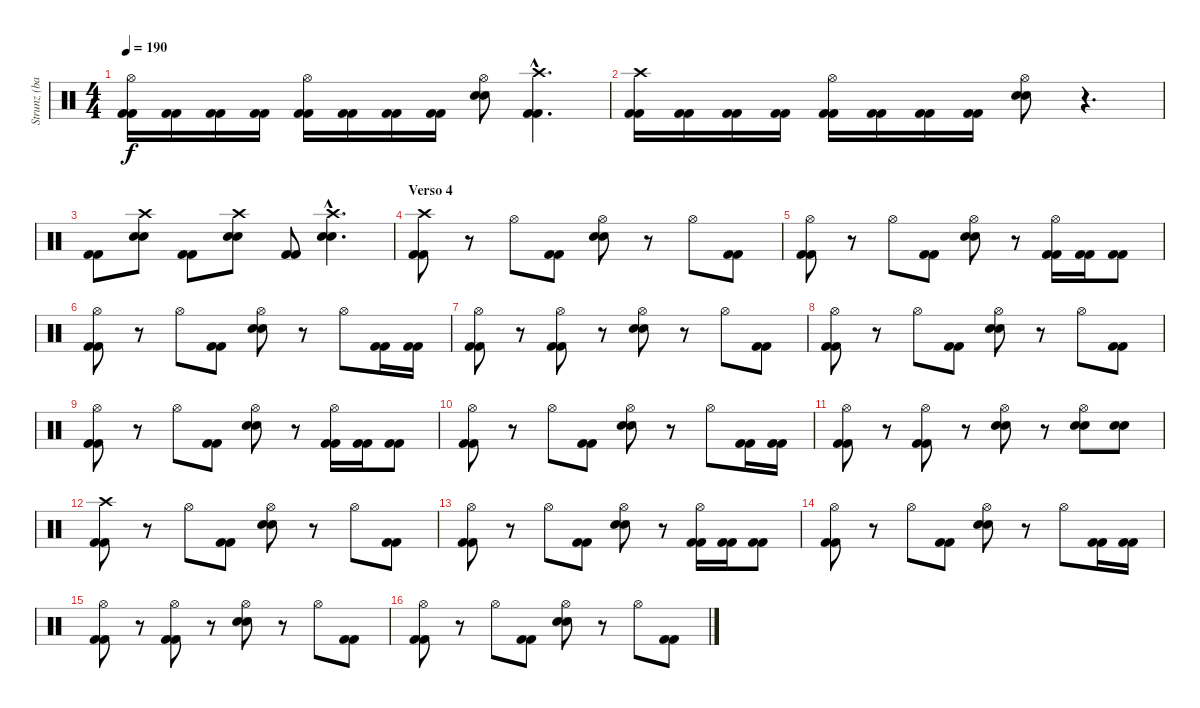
\track ("Strunz (bateria)" "Strunz (ba") {instrument percussion}
\staff {score}
\articulation defaults
\ts (4 4)
\tempo 190
\clef neutral
\ks c
("Hi-Hat (open)" "Kick (hit) 2" "Kick (hit) 2").16{dy f} ("Kick (hit) 2" "Kick (hit) 2").16 ("Kick (hit) 2" "Kick (hit) 2").16 ("Kick (hit) 2" "Kick (hit) 2").16 ("Hi-Hat (open)" "Kick (hit) 2" "Kick (hit) 2").16 ("Kick (hit) 2" "Kick (hit) 2").16 ("Kick (hit) 2" "Kick (hit) 2").16 ("Kick (hit) 2" "Kick (hit) 2").16 ("Hi-Hat (open)" "Snare (hit) 2" "Snare (hit) 2").8 ("Crash high (hit)"{hac} "Kick (hit) 2"{hac} "Kick (hit) 2"{hac}).4{d} |
("Crash high (hit)" "Kick (hit) 2" "Kick (hit) 2").16 ("Kick (hit) 2" "Kick (hit) 2").16 ("Kick (hit) 2" "Kick (hit) 2").16 ("Kick (hit) 2" "Kick (hit) 2").16 ("Hi-Hat (open)" "Kick (hit) 2" "Kick (hit) 2").16 ("Kick (hit) 2" "Kick (hit) 2").16 ("Kick (hit) 2" "Kick (hit) 2").16 ("Kick (hit) 2" "Kick (hit) 2").16 ("Hi-Hat (open)" "Snare (hit) 2" "Snare (hit) 2").8 r.4{d} |
("Kick (hit) 2" "Kick (hit) 2").8 ("Crash high (hit)" "Snare (hit) 2" "Snare (hit) 2").8 ("Kick (hit) 2" "Kick (hit) 2").8 ("Crash high (hit)" "Snare (hit) 2" "Snare (hit) 2").8 ("Kick (hit) 2" "Kick (hit) 2").8 ("Crash high (hit)"{hac} "Snare (hit) 2"{hac} "Snare (hit) 2"{hac}).4{d} |
\section ("" "Verso 4")
("Crash high (hit)" "Kick (hit) 2" "Kick (hit) 2").8 r.8 "Hi-Hat (open)".8 ("Kick (hit) 2" "Kick (hit) 2").8 ("Hi-Hat (open)" "Snare (hit) 2" "Snare (hit) 2").8 r.8 "Hi-Hat (open)".8 ("Kick (hit) 2" "Kick (hit) 2").8 |
("Hi-Hat (open)" "Kick (hit) 2" "Kick (hit) 2").8 r.8 "Hi-Hat (open)".8 ("Kick (hit) 2" "Kick (hit) 2").8 ("Hi-Hat (open)" "Snare (hit) 2" "Snare (hit) 2").8 r.8 ("Hi-Hat (open)" "Kick (hit) 2" "Kick (hit) 2").16 ("Kick (hit) 2" "Kick (hit) 2").16 ("Kick (hit) 2" "Kick (hit) 2").8 |
("Hi-Hat (open)" "Kick (hit) 2" "Kick (hit) 2").8 r.8 "Hi-Hat (open)".8 ("Kick (hit) 2" "Kick (hit) 2").8 ("Hi-Hat (open)" "Snare (hit) 2" "Snare (hit) 2").8 r.8 "Hi-Hat (open)".8 ("Kick (hit) 2" "Kick (hit) 2").16 ("Kick (hit) 2" "Kick (hit) 2").16 |
("Hi-Hat (open)" "Kick (hit) 2" "Kick (hit) 2").8 r.8 ("Hi-Hat (open)" "Kick (hit) 2" "Kick (hit) 2").8 r.8 ("Hi-Hat (open)" "Snare (hit) 2" "Snare (hit) 2").8 r.8 "Hi-Hat (open)".8 ("Kick (hit) 2" "Kick (hit) 2").8 |
("Hi-Hat (open)" "Kick (hit) 2" "Kick (hit) 2").8 r.8 "Hi-Hat (open)".8 ("Kick (hit) 2" "Kick (hit) 2").8 ("Hi-Hat (open)" "Snare (hit) 2" "Snare (hit) 2").8 r.8 "Hi-Hat (open)".8 ("Kick (hit) 2" "Kick (hit) 2").8 |
("Hi-Hat (open)" "Kick (hit) 2" "Kick (hit) 2").8 r.8 "Hi-Hat (open)".8 ("Kick (hit) 2" "Kick (hit) 2").8 ("Hi-Hat (open)" "Snare (hit) 2" "Snare (hit) 2").8 r.8 ("Hi-Hat (open)" "Kick (hit) 2" "Kick (hit) 2").16 ("Kick (hit) 2" "Kick (hit) 2").16 ("Kick (hit) 2" "Kick (hit) 2").8 |
("Hi-Hat (open)" "Kick (hit) 2" "Kick (hit) 2").8 r.8 "Hi-Hat (open)".8 ("Kick (hit) 2" "Kick (hit) 2").8 ("Hi-Hat (open)" "Snare (hit) 2" "Snare (hit) 2").8 r.8 "Hi-Hat (open)".8 ("Kick (hit) 2" "Kick (hit) 2").16 ("Kick (hit) 2" "Kick (hit) 2").16 |
("Hi-Hat (open)" "Kick (hit) 2" "Kick (hit) 2").8 r.8 ("Hi-Hat (open)" "Kick (hit) 2" "Kick (hit) 2").8 r.8 ("Hi-Hat (open)" "Snare (hit) 2" "Snare (hit) 2").8 r.8 ("Hi-Hat (open)" "Snare (hit) 2" "Snare (hit) 2").8 ("Snare (hit) 2" "Snare (hit) 2").8 |
("Crash high (hit)" "Kick (hit) 2" "Kick (hit) 2").8 r.8 "Hi-Hat (open)".8 ("Kick (hit) 2" "Kick (hit) 2").8 ("Hi-Hat (open)" "Snare (hit) 2" "Snare (hit) 2").8 r.8 "Hi-Hat (open)".8 ("Kick (hit) 2" "Kick (hit) 2").8 |
("Hi-Hat (open)" "Kick (hit) 2" "Kick (hit) 2").8 r.8 "Hi-Hat (open)".8 ("Kick (hit) 2" "Kick (hit) 2").8 ("Hi-Hat (open)" "Snare (hit) 2" "Snare (hit) 2").8 r.8 ("Hi-Hat (open)" "Kick (hit) 2" "Kick (hit) 2").16 ("Kick (hit) 2" "Kick (hit) 2").16 ("Kick (hit) 2" "Kick (hit) 2").8 |
("Hi-Hat (open)" "Kick (hit) 2" "Kick (hit) 2").8 r.8 "Hi-Hat (open)".8 ("Kick (hit) 2" "Kick (hit) 2").8 ("Hi-Hat (open)" "Snare (hit) 2" "Snare (hit) 2").8 r.8 "Hi-Hat (open)".8 ("Kick (hit) 2" "Kick (hit) 2").16 ("Kick (hit) 2" "Kick (hit) 2").16 |
("Hi-Hat (open)" "Kick (hit) 2" "Kick (hit) 2").8 r.8 ("Hi-Hat (open)" "Kick (hit) 2" "Kick (hit) 2").8 r.8 ("Hi-Hat (open)" "Snare (hit) 2" "Snare (hit) 2").8 r.8 "Hi-Hat (open)".8 ("Kick (hit) 2" "Kick (hit) 2").8 |
("Hi-Hat (open)" "Kick (hit) 2" "Kick (hit) 2").8 r.8 "Hi-Hat (open)".8 ("Kick (hit) 2" "Kick (hit) 2").8 ("Hi-Hat (open)" "Snare (hit) 2" "Snare (hit) 2").8 r.8 "Hi-Hat (open)".8 ("Kick (hit) 2" "Kick (hit) 2").8
